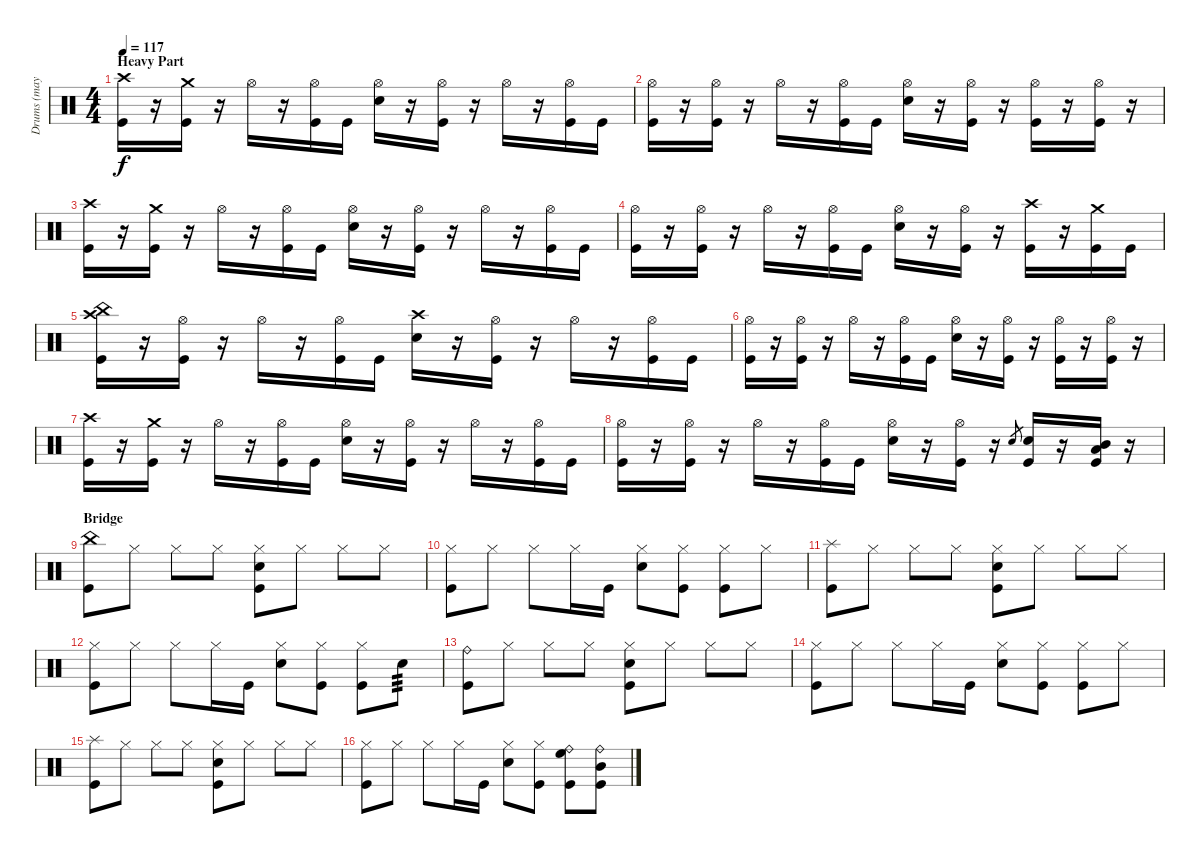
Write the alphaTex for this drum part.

\track ("Drums (maybe electrical, too)" "Drums (may") {instrument percussion}
\staff {score}
\articulation defaults
\ts (4 4)
\section ("" "Heavy Part")
\tempo 117
\clef neutral
\ks c
("Crash high (hit)" "Kick (hit)").16{dy f} r.16 ("Crash medium (hit)" "Kick (hit)").16 r.16 "Hi-Hat (open)".16 r.16 ("Hi-Hat (open)" "Kick (hit)").16 "Kick (hit)".16 ("Hi-Hat (open)" "Electric Snare (hit)").16 r.16 ("Hi-Hat (open)" "Kick (hit)").16 r.16 "Hi-Hat (open)".16 r.16 ("Hi-Hat (open)" "Kick (hit)").16 "Kick (hit)".16 |
("Hi-Hat (open)" "Kick (hit)").16 r.16 ("Hi-Hat (open)" "Kick (hit)").16 r.16 "Hi-Hat (open)".16 r.16 ("Hi-Hat (open)" "Kick (hit)").16 "Kick (hit)".16 ("Hi-Hat (open)" "Electric Snare (hit)").16 r.16 ("Hi-Hat (open)" "Kick (hit)").16 r.16 ("Hi-Hat (open)" "Kick (hit)").16 r.16 ("Hi-Hat (open)" "Kick (hit)").16 r.16 |
("Crash high (hit)" "Kick (hit)").16 r.16 ("Crash medium (hit)" "Kick (hit)").16 r.16 "Hi-Hat (open)".16 r.16 ("Hi-Hat (open)" "Kick (hit)").16 "Kick (hit)".16 ("Hi-Hat (open)" "Electric Snare (hit)").16 r.16 ("Hi-Hat (open)" "Kick (hit)").16 r.16 "Hi-Hat (open)".16 r.16 ("Hi-Hat (open)" "Kick (hit)").16 "Kick (hit)".16 |
("Hi-Hat (open)" "Kick (hit)").16 r.16 ("Hi-Hat (open)" "Kick (hit)").16 r.16 "Hi-Hat (open)".16 r.16 ("Hi-Hat (open)" "Kick (hit)").16 "Kick (hit)".16 ("Hi-Hat (open)" "Electric Snare (hit)").16 r.16 ("Hi-Hat (open)" "Kick (hit)").16 r.16 ("Crash high (hit)" "Kick (hit)").16 r.16 ("Crash medium (hit)" "Kick (hit)").16 "Kick (hit)".16 |
("Crash high (hit)" "China (hit)" "Kick (hit)").16 r.16 ("Hi-Hat (open)" "Kick (hit)").16 r.16 "Hi-Hat (open)".16 r.16 ("Hi-Hat (open)" "Kick (hit)").16 "Kick (hit)".16 ("Crash high (hit)" "Electric Snare (hit)").16 r.16 ("Hi-Hat (open)" "Kick (hit)").16 r.16 "Hi-Hat (open)".16 r.16 ("Hi-Hat (open)" "Kick (hit)").16 "Kick (hit)".16 |
("Hi-Hat (open)" "Kick (hit)").16 r.16 ("Hi-Hat (open)" "Kick (hit)").16 r.16 "Hi-Hat (open)".16 r.16 ("Hi-Hat (open)" "Kick (hit)").16 "Kick (hit)".16 ("Hi-Hat (open)" "Electric Snare (hit)").16 r.16 ("Hi-Hat (open)" "Kick (hit)").16 r.16 ("Hi-Hat (open)" "Kick (hit)").16 r.16 ("Hi-Hat (open)" "Kick (hit)").16 r.16 |
("Crash high (hit)" "Kick (hit)").16 r.16 ("Crash medium (hit)" "Kick (hit)").16 r.16 "Hi-Hat (open)".16 r.16 ("Hi-Hat (open)" "Kick (hit)").16 "Kick (hit)".16 ("Hi-Hat (open)" "Electric Snare (hit)").16 r.16 ("Hi-Hat (open)" "Kick (hit)").16 r.16 "Hi-Hat (open)".16 r.16 ("Hi-Hat (open)" "Kick (hit)").16 "Kick (hit)".16 |
("Hi-Hat (open)" "Kick (hit)").16 r.16 ("Hi-Hat (open)" "Kick (hit)").16 r.16 "Hi-Hat (open)".16 r.16 ("Hi-Hat (open)" "Kick (hit)").16 "Kick (hit)".16 ("Hi-Hat (open)" "Electric Snare (hit)").16 r.16 ("Hi-Hat (open)" "Kick (hit)").16 r.16 "Electric Snare (hit)".8{gr} ("Electric Snare (hit)" "Kick (hit)").16 r.16 ("Mid Tom (hit)" "Low Tom (hit)" "Kick (hit)").16 r.16 |
\section ("" "Bridge")
("China (hit)" "Kick (hit)").8 "Hi-Hat (closed)".8 "Hi-Hat (closed)".8 "Hi-Hat (closed)".8 ("Hi-Hat (closed)" "Electric Snare (hit)" "Kick (hit)").8 "Hi-Hat (closed)".8 "Hi-Hat (closed)".8 "Hi-Hat (closed)".8 |
("Hi-Hat (closed)" "Kick (hit)").8 "Hi-Hat (closed)".8 "Hi-Hat (closed)".8 "Hi-Hat (closed)".16 "Kick (hit)".16 ("Hi-Hat (closed)" "Electric Snare (hit)").8 ("Hi-Hat (closed)" "Kick (hit)").8 ("Hi-Hat (closed)" "Kick (hit)").8 "Hi-Hat (closed)".8 |
("Splash (hit)" "Kick (hit)").8 "Hi-Hat (closed)".8 "Hi-Hat (closed)".8 "Hi-Hat (closed)".8 ("Hi-Hat (closed)" "Electric Snare (hit)" "Kick (hit)").8 "Hi-Hat (closed)".8 "Hi-Hat (closed)".8 "Hi-Hat (closed)".8 |
("Hi-Hat (closed)" "Kick (hit)").8 "Hi-Hat (closed)".8 "Hi-Hat (closed)".8 "Hi-Hat (closed)".16 "Kick (hit)".16 ("Hi-Hat (closed)" "Electric Snare (hit)").8 ("Hi-Hat (closed)" "Kick (hit)").8 ("Hi-Hat (closed)" "Kick (hit)").8 "Electric Snare (hit)".8{tp 3} |
("Ride (bell)" "Kick (hit)").8 "Hi-Hat (closed)".8 "Hi-Hat (closed)".8 "Hi-Hat (closed)".8 ("Hi-Hat (closed)" "Electric Snare (hit)" "Kick (hit)").8 "Hi-Hat (closed)".8 "Hi-Hat (closed)".8 "Hi-Hat (closed)".8 |
("Hi-Hat (closed)" "Kick (hit)").8 "Hi-Hat (closed)".8 "Hi-Hat (closed)".8 "Hi-Hat (closed)".16 "Kick (hit)".16 ("Hi-Hat (closed)" "Electric Snare (hit)").8 ("Hi-Hat (closed)" "Kick (hit)").8 ("Hi-Hat (closed)" "Kick (hit)").8 "Hi-Hat (closed)".8 |
("Splash (hit)" "Kick (hit)").8 "Hi-Hat (closed)".8 "Hi-Hat (closed)".8 "Hi-Hat (closed)".8 ("Hi-Hat (closed)" "Electric Snare (hit)" "Kick (hit)").8 "Hi-Hat (closed)".8 "Hi-Hat (closed)".8 "Hi-Hat (closed)".8 |
("Hi-Hat (closed)" "Kick (hit)").8 "Hi-Hat (closed)".8 "Hi-Hat (closed)".8 "Hi-Hat (closed)".16 "Kick (hit)".16 ("Hi-Hat (closed)" "Electric Snare (hit)").8 ("Hi-Hat (closed)" "Kick (hit)").8 ("Ride (bell)" "High Floor Tom (hit)" "Kick (hit)").8 ("Ride (bell)" "Mid Tom (hit)" "Kick (hit)").8
